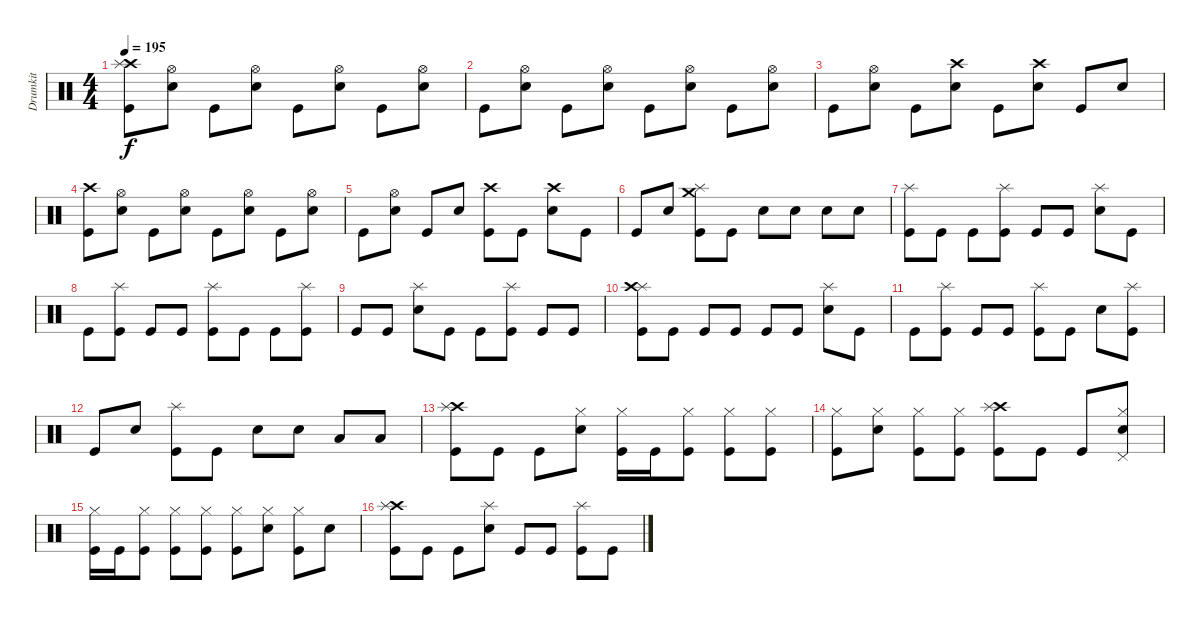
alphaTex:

\track ("Drumkit" "Drumkit") {instrument percussion}
\staff {score}
\articulation defaults
\ts (4 4)
\tempo 195
\clef neutral
\ks c
("Kick (hit)" "Crash high (hit)" "Splash (hit)").8{dy f} ("Snare (hit) 2" "Hi-Hat (open)").8 "Kick (hit)".8 ("Snare (hit) 2" "Hi-Hat (open)").8 "Kick (hit)".8 ("Snare (hit) 2" "Hi-Hat (open)").8 "Kick (hit)".8 ("Snare (hit) 2" "Hi-Hat (open)").8 |
"Kick (hit)".8 ("Snare (hit) 2" "Hi-Hat (open)").8 "Kick (hit)".8 ("Snare (hit) 2" "Hi-Hat (open)").8 "Kick (hit)".8 ("Snare (hit) 2" "Hi-Hat (open)").8 "Kick (hit)".8 ("Snare (hit) 2" "Hi-Hat (open)").8 |
"Kick (hit)".8 ("Snare (hit) 2" "Hi-Hat (open)").8 "Kick (hit)".8 ("Snare (hit) 2" "Crash high (hit)").8 "Kick (hit)".8 ("Snare (hit) 2" "Crash high (hit)").8 "Kick (hit)".8 "Snare (hit) 2".8 |
("Kick (hit)" "Crash high (hit)").8 ("Snare (hit) 2" "Hi-Hat (open)").8 "Kick (hit)".8 ("Snare (hit) 2" "Hi-Hat (open)").8 "Kick (hit)".8 ("Snare (hit) 2" "Hi-Hat (open)").8 "Kick (hit)".8 ("Snare (hit) 2" "Hi-Hat (open)").8 |
"Kick (hit)".8 ("Snare (hit) 2" "Hi-Hat (open)").8 "Kick (hit)".8 "Snare (hit) 2".8 ("Kick (hit)" "Crash high (hit)").8 "Kick (hit)".8 ("Snare (hit) 2" "Crash high (hit)").8 "Kick (hit)".8 |
"Kick (hit)".8 "Snare (hit) 2".8 ("Kick (hit)" "Crash medium (hit)" "Splash (hit)").8 "Kick (hit)".8 "Snare (hit) 2".8 "Snare (hit) 2".8 "Snare (hit) 2".8 "Snare (hit) 2".8 |
("Kick (hit)" "Splash (hit)").8 "Kick (hit)".8 "Kick (hit)".8 ("Kick (hit)" "Splash (hit)").8 "Kick (hit)".8 "Kick (hit)".8 ("Snare (hit) 2" "Splash (hit)").8 "Kick (hit)".8 |
"Kick (hit)".8 ("Kick (hit)" "Splash (hit)").8 "Kick (hit)".8 "Kick (hit)".8 ("Kick (hit)" "Splash (hit)").8 "Kick (hit)".8 "Kick (hit)".8 ("Kick (hit)" "Splash (hit)").8 |
"Kick (hit)".8 "Kick (hit)".8 ("Snare (hit) 2" "Splash (hit)").8 "Kick (hit)".8 "Kick (hit)".8 ("Kick (hit)" "Splash (hit)").8 "Kick (hit)".8 "Kick (hit)".8 |
("Kick (hit)" "Splash (hit)" "Crash high (hit)").8 "Kick (hit)".8 "Kick (hit)".8 "Kick (hit)".8 "Kick (hit)".8 "Kick (hit)".8 ("Snare (hit) 2" "Splash (hit)").8 "Kick (hit)".8 |
"Kick (hit)".8 ("Kick (hit)" "Splash (hit)").8 "Kick (hit)".8 "Kick (hit)".8 ("Kick (hit)" "Splash (hit)").8 "Kick (hit)".8 "Snare (hit) 2".8 ("Kick (hit)" "Splash (hit)").8 |
"Kick (hit)".8 "Snare (hit) 2".8 ("Kick (hit)" "Splash (hit)").8 "Kick (hit)".8 "Snare (hit) 2".8 "Snare (hit) 2".8 "Low Floor Tom (hit)".8 "Low Floor Tom (hit)".8 |
("Kick (hit)" "Crash high (hit)" "Splash (hit)").8 "Kick (hit)".8 "Kick (hit)".8 ("Snare (hit) 2" "Hi-Hat (closed)").8 ("Kick (hit)" "Hi-Hat (closed)").16 "Kick (hit)".16 ("Kick (hit)" "Hi-Hat (closed)").8 ("Kick (hit)" "Hi-Hat (closed)").8 ("Kick (hit)" "Hi-Hat (closed)").8 |
("Kick (hit)" "Hi-Hat (closed)").8 ("Snare (hit) 2" "Hi-Hat (closed)").8 ("Kick (hit)" "Hi-Hat (closed)").8 ("Kick (hit)" "Hi-Hat (closed)").8 ("Kick (hit)" "Crash high (hit)" "Splash (hit)").8 "Kick (hit)".8 "Kick (hit)".8 ("Snare (hit) 2" "Pedal Hi-Hat (hit)" "Hi-Hat (closed)").8 |
("Kick (hit)" "Hi-Hat (closed)").16 "Kick (hit)".16 ("Kick (hit)" "Hi-Hat (closed)").8 ("Kick (hit)" "Hi-Hat (closed)").8 ("Kick (hit)" "Hi-Hat (closed)").8 ("Kick (hit)" "Hi-Hat (closed)").8 ("Snare (hit) 2" "Hi-Hat (closed)").8 ("Kick (hit)" "Hi-Hat (closed)").8 "Snare (hit) 2".8 |
("Kick (hit)" "Crash high (hit)" "Splash (hit)").8 "Kick (hit)".8 "Kick (hit)".8 ("Snare (hit) 2" "Splash (hit)").8 "Kick (hit)".8 "Kick (hit)".8 ("Kick (hit)" "Splash (hit)").8 "Kick (hit)".8
